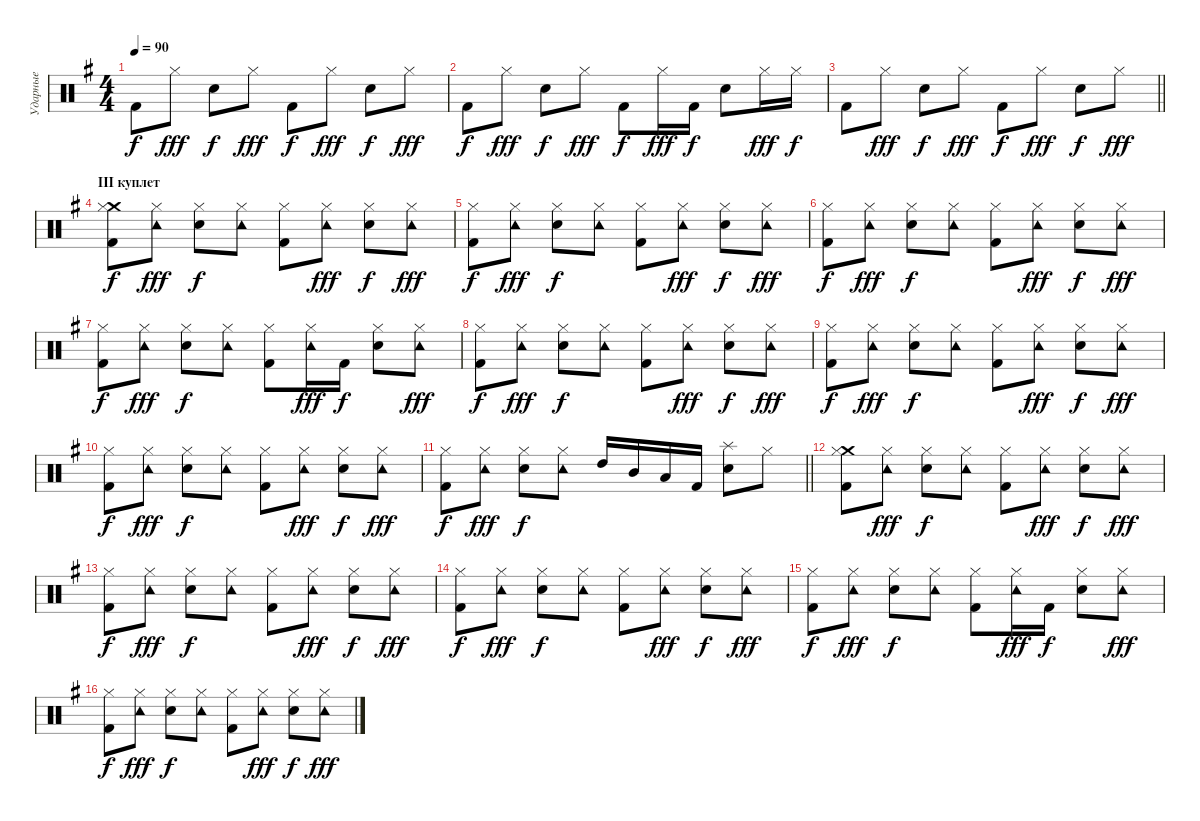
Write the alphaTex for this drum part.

\track ("Ударные" "Ударные") {instrument percussion}
\staff {score}
\articulation defaults
\ts (4 4)
\tempo 90
\clef neutral
\ks eminor "Kick (hit) 2".8{dy f} "Hi-Hat (closed)".8{dy fff} "Snare (hit) 2".8{dy f} "Hi-Hat (closed)".8{dy fff} "Kick (hit) 2".8{dy f} "Hi-Hat (closed)".8{dy fff} "Snare (hit) 2".8{dy f} "Hi-Hat (closed)".8{dy fff}
|
"Kick (hit) 2".8{dy f} "Hi-Hat (closed)".8{dy fff} "Snare (hit) 2".8{dy f} "Hi-Hat (closed)".8{dy fff} "Kick (hit) 2".8{dy f} "Hi-Hat (closed)".16{dy fff} "Kick (hit) 2".16{dy f} "Snare (hit) 2".8 "Hi-Hat (closed)".16{dy fff} "Hi-Hat (closed)".16{dy f} |
\barLineRight lightlight "Kick (hit) 2".8 "Hi-Hat (closed)".8{dy fff} "Snare (hit) 2".8{dy f} "Hi-Hat (closed)".8{dy fff} "Kick (hit) 2".8{dy f} "Hi-Hat (closed)".8{dy fff} "Snare (hit) 2".8{dy f} "Hi-Hat (closed)".8{dy fff}
|
\section ("" "III куплет")
("Crash medium (hit)" "Kick (hit) 2" "Hi-Hat (closed)").8{dy f} ("Hi-Hat (closed)" "Tambourine (hit)").8{dy fff} ("Electric Snare (hit)" "Hi-Hat (closed)").8{dy f} ("Hi-Hat (closed)" "Tambourine (hit)").8 ("Kick (hit) 2" "Hi-Hat (closed)").8 ("Hi-Hat (closed)" "Tambourine (hit)").8{dy fff} ("Electric Snare (hit)" "Hi-Hat (closed)").8{dy f} ("Hi-Hat (closed)" "Tambourine (hit)").8{dy fff} |
("Kick (hit) 2" "Hi-Hat (closed)").8{dy f} ("Hi-Hat (closed)" "Tambourine (hit)").8{dy fff} ("Electric Snare (hit)" "Hi-Hat (closed)").8{dy f} ("Hi-Hat (closed)" "Tambourine (hit)").8 ("Kick (hit) 2" "Hi-Hat (closed)").8 ("Hi-Hat (closed)" "Tambourine (hit)").8{dy fff} ("Electric Snare (hit)" "Hi-Hat (closed)").8{dy f} ("Hi-Hat (closed)" "Tambourine (hit)").8{dy fff} |
("Kick (hit) 2" "Hi-Hat (closed)").8{dy f} ("Hi-Hat (closed)" "Tambourine (hit)").8{dy fff} ("Electric Snare (hit)" "Hi-Hat (closed)").8{dy f} ("Hi-Hat (closed)" "Tambourine (hit)").8 ("Kick (hit) 2" "Hi-Hat (closed)").8 ("Hi-Hat (closed)" "Tambourine (hit)").8{dy fff} ("Electric Snare (hit)" "Hi-Hat (closed)").8{dy f} ("Hi-Hat (closed)" "Tambourine (hit)").8{dy fff} |
("Kick (hit) 2" "Hi-Hat (closed)").8{dy f} ("Hi-Hat (closed)" "Tambourine (hit)").8{dy fff} ("Electric Snare (hit)" "Hi-Hat (closed)").8{dy f} ("Hi-Hat (closed)" "Tambourine (hit)").8 ("Kick (hit) 2" "Hi-Hat (closed)").8 ("Hi-Hat (closed)" "Tambourine (hit)").16{dy fff} "Kick (hit) 2".16{dy f} ("Electric Snare (hit)" "Hi-Hat (closed)").8 ("Hi-Hat (closed)" "Tambourine (hit)").8{dy fff} |
("Kick (hit) 2" "Hi-Hat (closed)").8{dy f} ("Hi-Hat (closed)" "Tambourine (hit)").8{dy fff} ("Electric Snare (hit)" "Hi-Hat (closed)").8{dy f} ("Hi-Hat (closed)" "Tambourine (hit)").8 ("Kick (hit) 2" "Hi-Hat (closed)").8 ("Hi-Hat (closed)" "Tambourine (hit)").8{dy fff} ("Electric Snare (hit)" "Hi-Hat (closed)").8{dy f} ("Hi-Hat (closed)" "Tambourine (hit)").8{dy fff} |
("Kick (hit) 2" "Hi-Hat (closed)").8{dy f} ("Hi-Hat (closed)" "Tambourine (hit)").8{dy fff} ("Electric Snare (hit)" "Hi-Hat (closed)").8{dy f} ("Hi-Hat (closed)" "Tambourine (hit)").8 ("Kick (hit) 2" "Hi-Hat (closed)").8 ("Hi-Hat (closed)" "Tambourine (hit)").8{dy fff} ("Electric Snare (hit)" "Hi-Hat (closed)").8{dy f} ("Hi-Hat (closed)" "Tambourine (hit)").8{dy fff} |
("Kick (hit) 2" "Hi-Hat (closed)").8{dy f} ("Hi-Hat (closed)" "Tambourine (hit)").8{dy fff} ("Electric Snare (hit)" "Hi-Hat (closed)").8{dy f} ("Hi-Hat (closed)" "Tambourine (hit)").8 ("Kick (hit) 2" "Hi-Hat (closed)").8 ("Hi-Hat (closed)" "Tambourine (hit)").8{dy fff} ("Electric Snare (hit)" "Hi-Hat (closed)").8{dy f} ("Hi-Hat (closed)" "Tambourine (hit)").8{dy fff} |
\barLineRight lightlight
("Kick (hit) 2" "Hi-Hat (closed)").8{dy f} ("Hi-Hat (closed)" "Tambourine (hit)").8{dy fff} ("Electric Snare (hit)" "Hi-Hat (closed)").8{dy f} ("Hi-Hat (closed)" "Tambourine (hit)").8 "High Tom (hit)".16 "Mid Tom (hit)".16 "Low Tom (hit)".16 "Kick (hit) 2".16 ("Splash (hit)" "Electric Snare (hit)").8 "Hi-Hat (closed)".8 |
("Crash medium (hit)" "Kick (hit) 2" "Hi-Hat (closed)").8 ("Hi-Hat (closed)" "Tambourine (hit)").8{dy fff} ("Electric Snare (hit)" "Hi-Hat (closed)").8{dy f} ("Hi-Hat (closed)" "Tambourine (hit)").8 ("Kick (hit) 2" "Hi-Hat (closed)").8 ("Hi-Hat (closed)" "Tambourine (hit)").8{dy fff} ("Electric Snare (hit)" "Hi-Hat (closed)").8{dy f} ("Hi-Hat (closed)" "Tambourine (hit)").8{dy fff} |
("Kick (hit) 2" "Hi-Hat (closed)").8{dy f} ("Hi-Hat (closed)" "Tambourine (hit)").8{dy fff} ("Electric Snare (hit)" "Hi-Hat (closed)").8{dy f} ("Hi-Hat (closed)" "Tambourine (hit)").8 ("Kick (hit) 2" "Hi-Hat (closed)").8 ("Hi-Hat (closed)" "Tambourine (hit)").8{dy fff} ("Electric Snare (hit)" "Hi-Hat (closed)").8{dy f} ("Hi-Hat (closed)" "Tambourine (hit)").8{dy fff} |
("Kick (hit) 2" "Hi-Hat (closed)").8{dy f} ("Hi-Hat (closed)" "Tambourine (hit)").8{dy fff} ("Electric Snare (hit)" "Hi-Hat (closed)").8{dy f} ("Hi-Hat (closed)" "Tambourine (hit)").8 ("Kick (hit) 2" "Hi-Hat (closed)").8 ("Hi-Hat (closed)" "Tambourine (hit)").8{dy fff} ("Electric Snare (hit)" "Hi-Hat (closed)").8{dy f} ("Hi-Hat (closed)" "Tambourine (hit)").8{dy fff} |
("Kick (hit) 2" "Hi-Hat (closed)").8{dy f} ("Hi-Hat (closed)" "Tambourine (hit)").8{dy fff} ("Electric Snare (hit)" "Hi-Hat (closed)").8{dy f} ("Hi-Hat (closed)" "Tambourine (hit)").8 ("Kick (hit) 2" "Hi-Hat (closed)").8 ("Hi-Hat (closed)" "Tambourine (hit)").16{dy fff} "Kick (hit) 2".16{dy f} ("Electric Snare (hit)" "Hi-Hat (closed)").8 ("Hi-Hat (closed)" "Tambourine (hit)").8{dy fff} |
("Kick (hit) 2" "Hi-Hat (closed)").8{dy f} ("Hi-Hat (closed)" "Tambourine (hit)").8{dy fff} ("Electric Snare (hit)" "Hi-Hat (closed)").8{dy f} ("Hi-Hat (closed)" "Tambourine (hit)").8 ("Kick (hit) 2" "Hi-Hat (closed)").8 ("Hi-Hat (closed)" "Tambourine (hit)").8{dy fff} ("Electric Snare (hit)" "Hi-Hat (closed)").8{dy f} ("Hi-Hat (closed)" "Tambourine (hit)").8{dy fff}
